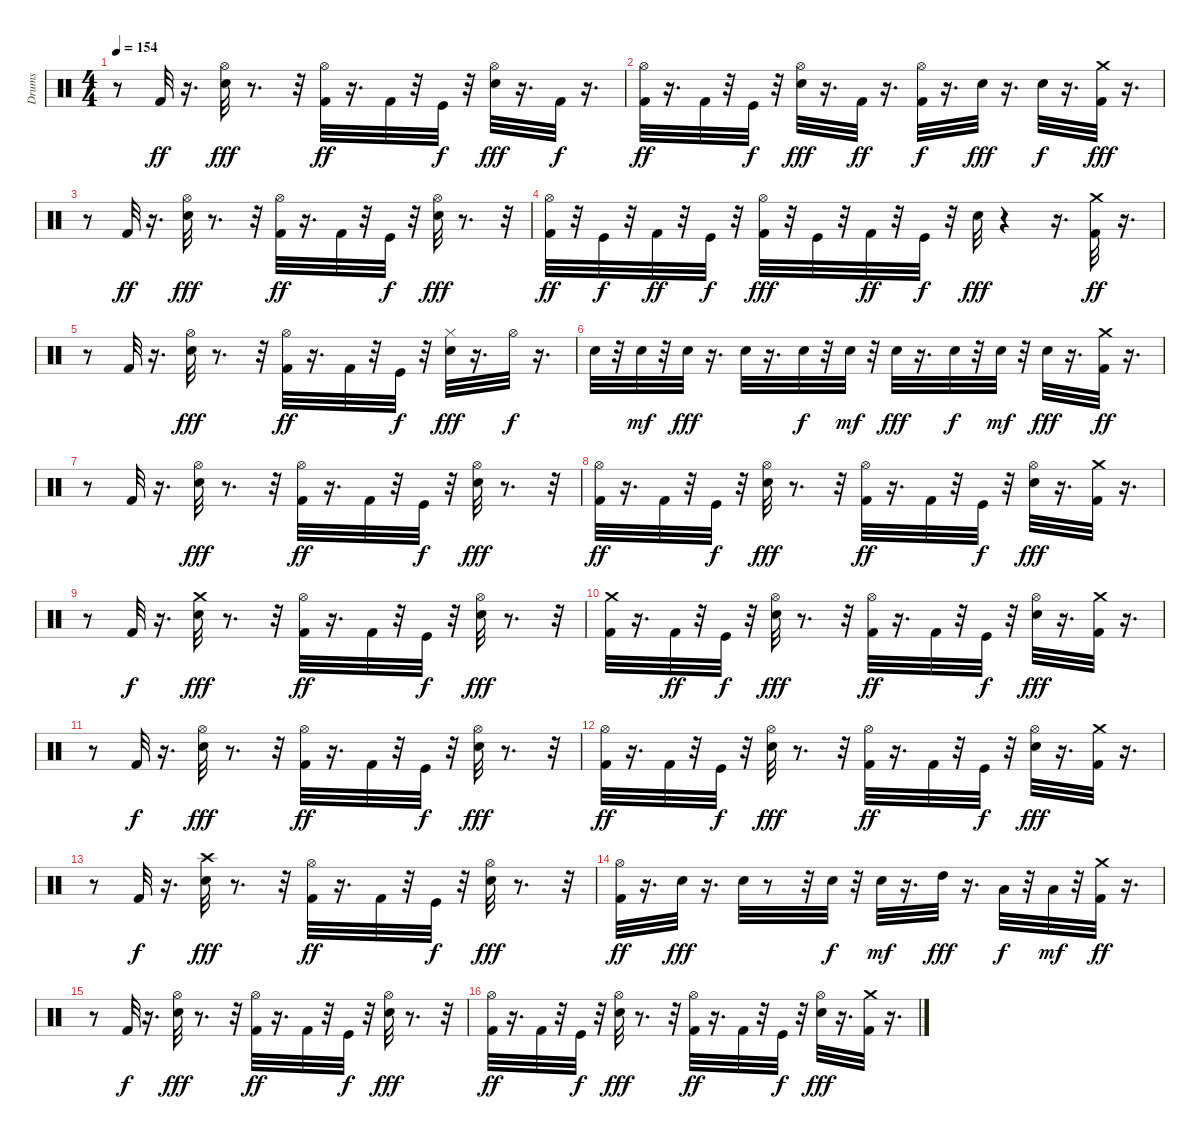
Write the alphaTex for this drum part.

\track ("Drums" "Drums") {instrument percussion}
\staff {score}
\articulation defaults
\ts (4 4)
\tempo 154
\clef neutral
\ks c
r.8{dy fff} "Kick (hit) 2".32{dy ff} r.16{d} ("Snare (hit) 2" "Hi-Hat (open)").32{dy fff} r.8{d} r.32 ("Kick (hit) 2" "Hi-Hat (open)").32{dy ff} r.16{d} "Kick (hit) 2".32 r.32 "Kick (hit)".32{dy f} r.32 ("Snare (hit) 2" "Hi-Hat (open)").32{dy fff} r.16{d} "Kick (hit) 2".32{dy f} r.16{d} |
("Kick (hit) 2" "Hi-Hat (open)").32{dy ff} r.16{d} "Kick (hit) 2".32 r.32 "Kick (hit)".32{dy f} r.32 ("Snare (hit) 2" "Hi-Hat (open)").32{dy fff} r.16{d} "Kick (hit) 2".32{dy ff} r.16{d} ("Kick (hit) 2" "Hi-Hat (open)").32{dy f} r.16{d} "Snare (hit) 2".32{dy fff} r.16{d} "Snare (hit) 2".32{dy f} r.16{d} ("Kick (hit) 2" "Crash medium (hit)").32{dy fff} r.16{d} |
r.8 "Kick (hit) 2".32{dy ff} r.16{d} ("Snare (hit) 2" "Hi-Hat (open)").32{dy fff} r.8{d} r.32 ("Kick (hit) 2" "Hi-Hat (open)").32{dy ff} r.16{d} "Kick (hit) 2".32 r.32 "Kick (hit)".32{dy f} r.32 ("Snare (hit) 2" "Hi-Hat (open)").32{dy fff} r.8{d} r.32 |
("Kick (hit) 2" "Hi-Hat (open)").32{dy ff} r.32 "Kick (hit)".32{dy f} r.32 "Kick (hit) 2".32{dy ff} r.32 "Kick (hit)".32{dy f} r.32 ("Kick (hit) 2" "Hi-Hat (open)").32{dy fff} r.32 "Kick (hit)".32 r.32 "Kick (hit) 2".32{dy ff} r.32 "Kick (hit)".32{dy f} r.32 "Snare (hit) 2".32{dy fff} r.4 r.16{d} ("Crash medium (hit)" "Kick (hit) 2").32{dy ff} r.16{d} |
r.8 "Kick (hit) 2".32 r.16{d} ("Snare (hit) 2" "Hi-Hat (open)").32{dy fff} r.8{d} r.32 ("Kick (hit) 2" "Hi-Hat (open)").32{dy ff} r.16{d} "Kick (hit) 2".32 r.32 "Kick (hit)".32{dy f} r.32 ("Snare (hit) 2" "Hi-Hat (closed)").32{dy fff} r.16{d} "Hi-Hat (open)".32{dy f} r.16{d} |
"Snare (hit) 2".32 r.32 "Snare (hit) 2".32{dy mf} r.32 "Snare (hit) 2".32{dy fff} r.16{d} "Snare (hit) 2".32 r.16{d} "Snare (hit) 2".32{dy f} r.32 "Snare (hit) 2".32{dy mf} r.32 "Snare (hit) 2".32{dy fff} r.16{d} "Snare (hit) 2".32{dy f} r.32 "Snare (hit) 2".32{dy mf} r.32 "Snare (hit) 2".32{dy fff} r.16{d} ("Crash medium (hit)" "Kick (hit) 2").32{dy ff} r.16{d} |
r.8 "Kick (hit) 2".32 r.16{d} ("Snare (hit) 2" "Hi-Hat (open)").32{dy fff} r.8{d} r.32 ("Kick (hit) 2" "Hi-Hat (open)").32{dy ff} r.16{d} "Kick (hit) 2".32 r.32 "Kick (hit)".32{dy f} r.32 ("Snare (hit) 2" "Hi-Hat (open)").32{dy fff} r.8{d} r.32 |
("Kick (hit) 2" "Hi-Hat (open)").32{dy ff} r.16{d} "Kick (hit) 2".32 r.32 "Kick (hit)".32{dy f} r.32 ("Snare (hit) 2" "Hi-Hat (open)").32{dy fff} r.8{d} r.32 ("Kick (hit) 2" "Hi-Hat (open)").32{dy ff} r.16{d} "Kick (hit) 2".32 r.32 "Kick (hit)".32{dy f} r.32 ("Snare (hit) 2" "Hi-Hat (open)").32{dy fff} r.16{d} ("Kick (hit) 2" "Crash medium (hit)").32 r.16{d} |
r.8 "Kick (hit) 2".32{dy f} r.16{d} ("Snare (hit) 2" "Crash medium (hit)").32{dy fff} r.8{d} r.32 ("Kick (hit) 2" "Hi-Hat (open)").32{dy ff} r.16{d} "Kick (hit) 2".32 r.32 "Kick (hit)".32{dy f} r.32 ("Snare (hit) 2" "Hi-Hat (open)").32{dy fff} r.8{d} r.32 |
("Kick (hit) 2" "Crash medium (hit)").32 r.16{d} "Kick (hit) 2".32{dy ff} r.32 "Kick (hit)".32{dy f} r.32 ("Snare (hit) 2" "Hi-Hat (open)").32{dy fff} r.8{d} r.32 ("Kick (hit) 2" "Hi-Hat (open)").32{dy ff} r.16{d} "Kick (hit) 2".32 r.32 "Kick (hit)".32{dy f} r.32 ("Snare (hit) 2" "Hi-Hat (open)").32{dy fff} r.16{d} ("Kick (hit) 2" "Crash medium (hit)").32 r.16{d} |
r.8 "Kick (hit) 2".32{dy f} r.16{d} ("Snare (hit) 2" "Hi-Hat (open)").32{dy fff} r.8{d} r.32 ("Kick (hit) 2" "Hi-Hat (open)").32{dy ff} r.16{d} "Kick (hit) 2".32 r.32 "Kick (hit)".32{dy f} r.32 ("Snare (hit) 2" "Hi-Hat (open)").32{dy fff} r.8{d} r.32 |
("Kick (hit) 2" "Hi-Hat (open)").32{dy ff} r.16{d} "Kick (hit) 2".32 r.32 "Kick (hit)".32{dy f} r.32 ("Snare (hit) 2" "Hi-Hat (open)").32{dy fff} r.8{d} r.32 ("Kick (hit) 2" "Hi-Hat (open)").32{dy ff} r.16{d} "Kick (hit) 2".32 r.32 "Kick (hit)".32{dy f} r.32 ("Snare (hit) 2" "Hi-Hat (open)").32{dy fff} r.16{d} ("Kick (hit) 2" "Crash medium (hit)").32 r.16{d} |
r.8 "Kick (hit) 2".32{dy f} r.16{d} ("Snare (hit) 2" "Crash high (hit)").32{dy fff} r.8{d} r.32 ("Kick (hit) 2" "Hi-Hat (open)").32{dy ff} r.16{d} "Kick (hit) 2".32 r.32 "Kick (hit)".32{dy f} r.32 ("Snare (hit) 2" "Hi-Hat (open)").32{dy fff} r.8{d} r.32 |
("Kick (hit) 2" "Hi-Hat (open)").32{dy ff} r.16{d} "Snare (hit) 2".32{dy fff} r.16{d} "Snare (hit) 2".32 r.8 r.32 "Snare (hit) 2".32{dy f} r.32 "Snare (hit) 2".32{dy mf} r.16{d} "High Tom (hit)".32{dy fff} r.16{d} "Low Tom (hit)".32{dy f} r.32 "Low Tom (hit)".32{dy mf} r.32 ("Crash medium (hit)" "Kick (hit) 2").32{dy ff} r.16{d} |
r.8 "Kick (hit) 2".32{dy f} r.16{d} ("Snare (hit) 2" "Hi-Hat (open)").32{dy fff} r.8{d} r.32 ("Kick (hit) 2" "Hi-Hat (open)").32{dy ff} r.16{d} "Kick (hit) 2".32 r.32 "Kick (hit)".32{dy f} r.32 ("Snare (hit) 2" "Hi-Hat (open)").32{dy fff} r.8{d} r.32 |
("Kick (hit) 2" "Hi-Hat (open)").32{dy ff} r.16{d} "Kick (hit) 2".32 r.32 "Kick (hit)".32{dy f} r.32 ("Snare (hit) 2" "Hi-Hat (open)").32{dy fff} r.8{d} r.32 ("Kick (hit) 2" "Hi-Hat (open)").32{dy ff} r.16{d} "Kick (hit) 2".32 r.32 "Kick (hit)".32{dy f} r.32 ("Snare (hit) 2" "Hi-Hat (open)").32{dy fff} r.16{d} ("Kick (hit) 2" "Crash medium (hit)").32 r.16{d}
